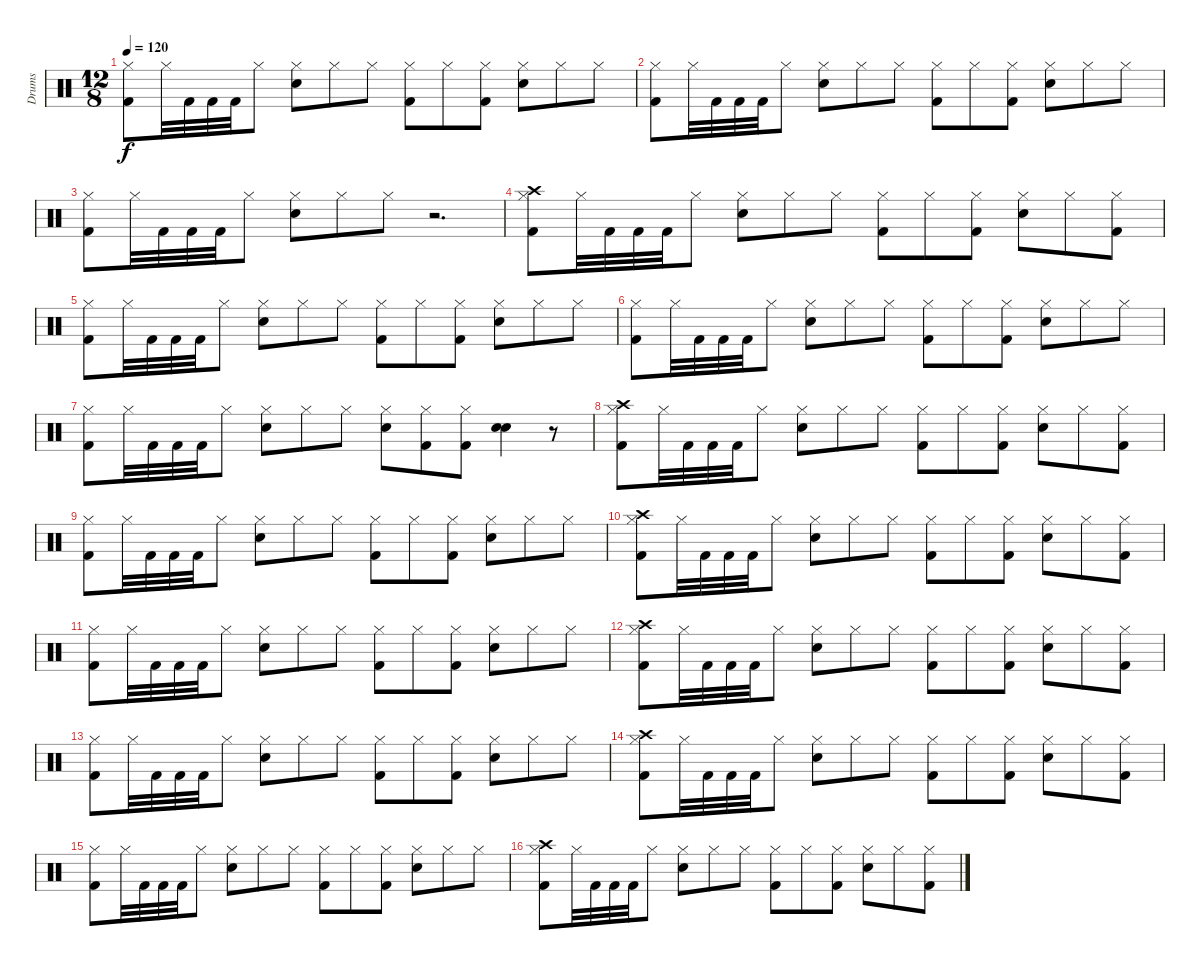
\track ("Drums" "Drums") {instrument percussion}
\staff {score}
\articulation defaults
\ts (12 8)
\tempo 120
\clef neutral
\ks c
("Hi-Hat (closed)" "Kick (hit) 2").8{dy f} "Hi-Hat (closed)".32 "Kick (hit) 2".32 "Kick (hit) 2".32 "Kick (hit) 2".32 "Hi-Hat (closed)".8 ("Hi-Hat (closed)" "Snare (hit) 2").8 "Hi-Hat (closed)".8 "Hi-Hat (closed)".8 ("Hi-Hat (closed)" "Kick (hit) 2").8 "Hi-Hat (closed)".8 ("Hi-Hat (closed)" "Kick (hit) 2").8 ("Hi-Hat (closed)" "Snare (hit) 2").8 "Hi-Hat (closed)".8 "Hi-Hat (closed)".8 |
("Hi-Hat (closed)" "Kick (hit) 2").8 "Hi-Hat (closed)".32 "Kick (hit) 2".32 "Kick (hit) 2".32 "Kick (hit) 2".32 "Hi-Hat (closed)".8 ("Hi-Hat (closed)" "Snare (hit) 2").8 "Hi-Hat (closed)".8 "Hi-Hat (closed)".8 ("Hi-Hat (closed)" "Kick (hit) 2").8 "Hi-Hat (closed)".8 ("Hi-Hat (closed)" "Kick (hit) 2").8 ("Hi-Hat (closed)" "Snare (hit) 2").8 "Hi-Hat (closed)".8 "Hi-Hat (closed)".8 |
("Hi-Hat (closed)" "Kick (hit) 2").8 "Hi-Hat (closed)".32 "Kick (hit) 2".32 "Kick (hit) 2".32 "Kick (hit) 2".32 "Hi-Hat (closed)".8 ("Hi-Hat (closed)" "Snare (hit) 2").8 "Hi-Hat (closed)".8 "Hi-Hat (closed)".8 r.2{d} |
("Crash high (hit)" "Hi-Hat (closed)" "Kick (hit) 2").8 "Hi-Hat (closed)".32 "Kick (hit) 2".32 "Kick (hit) 2".32 "Kick (hit) 2".32 "Hi-Hat (closed)".8 ("Hi-Hat (closed)" "Snare (hit) 2").8 "Hi-Hat (closed)".8 "Hi-Hat (closed)".8 ("Hi-Hat (closed)" "Kick (hit) 2").8 "Hi-Hat (closed)".8 ("Hi-Hat (closed)" "Kick (hit) 2").8 ("Hi-Hat (closed)" "Snare (hit) 2").8 "Hi-Hat (closed)".8 ("Hi-Hat (closed)" "Kick (hit) 2").8 |
("Hi-Hat (closed)" "Kick (hit) 2").8 "Hi-Hat (closed)".32 "Kick (hit) 2".32 "Kick (hit) 2".32 "Kick (hit) 2".32 "Hi-Hat (closed)".8 ("Hi-Hat (closed)" "Snare (hit) 2").8 "Hi-Hat (closed)".8 "Hi-Hat (closed)".8 ("Hi-Hat (closed)" "Kick (hit) 2").8 "Hi-Hat (closed)".8 ("Hi-Hat (closed)" "Kick (hit) 2").8 ("Hi-Hat (closed)" "Snare (hit) 2").8 "Hi-Hat (closed)".8 "Hi-Hat (closed)".8 |
("Hi-Hat (closed)" "Kick (hit) 2").8 "Hi-Hat (closed)".32 "Kick (hit) 2".32 "Kick (hit) 2".32 "Kick (hit) 2".32 "Hi-Hat (closed)".8 ("Hi-Hat (closed)" "Snare (hit) 2").8 "Hi-Hat (closed)".8 "Hi-Hat (closed)".8 ("Hi-Hat (closed)" "Kick (hit) 2").8 "Hi-Hat (closed)".8 ("Hi-Hat (closed)" "Kick (hit) 2").8 ("Hi-Hat (closed)" "Snare (hit) 2").8 "Hi-Hat (closed)".8 "Hi-Hat (closed)".8 |
("Hi-Hat (closed)" "Kick (hit) 2").8 "Hi-Hat (closed)".32 "Kick (hit) 2".32 "Kick (hit) 2".32 "Kick (hit) 2".32 "Hi-Hat (closed)".8 ("Hi-Hat (closed)" "Snare (hit) 2").8 "Hi-Hat (closed)".8 "Hi-Hat (closed)".8 ("Hi-Hat (closed)" "Snare (hit) 2").8 ("Hi-Hat (closed)" "Kick (hit) 2").8 ("Hi-Hat (closed)" "Kick (hit) 2").8 ("Snare (hit) 2" "Snare (hit) 2").4 r.8 |
("Crash high (hit)" "Hi-Hat (closed)" "Kick (hit) 2").8 "Hi-Hat (closed)".32 "Kick (hit) 2".32 "Kick (hit) 2".32 "Kick (hit) 2".32 "Hi-Hat (closed)".8 ("Hi-Hat (closed)" "Snare (hit) 2").8 "Hi-Hat (closed)".8 "Hi-Hat (closed)".8 ("Hi-Hat (closed)" "Kick (hit) 2").8 "Hi-Hat (closed)".8 ("Hi-Hat (closed)" "Kick (hit) 2").8 ("Hi-Hat (closed)" "Snare (hit) 2").8 "Hi-Hat (closed)".8 ("Hi-Hat (closed)" "Kick (hit) 2").8 |
("Hi-Hat (closed)" "Kick (hit) 2").8 "Hi-Hat (closed)".32 "Kick (hit) 2".32 "Kick (hit) 2".32 "Kick (hit) 2".32 "Hi-Hat (closed)".8 ("Hi-Hat (closed)" "Snare (hit) 2").8 "Hi-Hat (closed)".8 "Hi-Hat (closed)".8 ("Hi-Hat (closed)" "Kick (hit) 2").8 "Hi-Hat (closed)".8 ("Hi-Hat (closed)" "Kick (hit) 2").8 ("Hi-Hat (closed)" "Snare (hit) 2").8 "Hi-Hat (closed)".8 "Hi-Hat (closed)".8 |
("Crash high (hit)" "Hi-Hat (closed)" "Kick (hit) 2").8 "Hi-Hat (closed)".32 "Kick (hit) 2".32 "Kick (hit) 2".32 "Kick (hit) 2".32 "Hi-Hat (closed)".8 ("Hi-Hat (closed)" "Snare (hit) 2").8 "Hi-Hat (closed)".8 "Hi-Hat (closed)".8 ("Hi-Hat (closed)" "Kick (hit) 2").8 "Hi-Hat (closed)".8 ("Hi-Hat (closed)" "Kick (hit) 2").8 ("Hi-Hat (closed)" "Snare (hit) 2").8 "Hi-Hat (closed)".8 ("Hi-Hat (closed)" "Kick (hit) 2").8 |
("Hi-Hat (closed)" "Kick (hit) 2").8 "Hi-Hat (closed)".32 "Kick (hit) 2".32 "Kick (hit) 2".32 "Kick (hit) 2".32 "Hi-Hat (closed)".8 ("Hi-Hat (closed)" "Snare (hit) 2").8 "Hi-Hat (closed)".8 "Hi-Hat (closed)".8 ("Hi-Hat (closed)" "Kick (hit) 2").8 "Hi-Hat (closed)".8 ("Hi-Hat (closed)" "Kick (hit) 2").8 ("Hi-Hat (closed)" "Snare (hit) 2").8 "Hi-Hat (closed)".8 "Hi-Hat (closed)".8 |
("Crash high (hit)" "Hi-Hat (closed)" "Kick (hit) 2").8 "Hi-Hat (closed)".32 "Kick (hit) 2".32 "Kick (hit) 2".32 "Kick (hit) 2".32 "Hi-Hat (closed)".8 ("Hi-Hat (closed)" "Snare (hit) 2").8 "Hi-Hat (closed)".8 "Hi-Hat (closed)".8 ("Hi-Hat (closed)" "Kick (hit) 2").8 "Hi-Hat (closed)".8 ("Hi-Hat (closed)" "Kick (hit) 2").8 ("Hi-Hat (closed)" "Snare (hit) 2").8 "Hi-Hat (closed)".8 ("Hi-Hat (closed)" "Kick (hit) 2").8 |
("Hi-Hat (closed)" "Kick (hit) 2").8 "Hi-Hat (closed)".32 "Kick (hit) 2".32 "Kick (hit) 2".32 "Kick (hit) 2".32 "Hi-Hat (closed)".8 ("Hi-Hat (closed)" "Snare (hit) 2").8 "Hi-Hat (closed)".8 "Hi-Hat (closed)".8 ("Hi-Hat (closed)" "Kick (hit) 2").8 "Hi-Hat (closed)".8 ("Hi-Hat (closed)" "Kick (hit) 2").8 ("Hi-Hat (closed)" "Snare (hit) 2").8 "Hi-Hat (closed)".8 "Hi-Hat (closed)".8 |
("Crash high (hit)" "Hi-Hat (closed)" "Kick (hit) 2").8 "Hi-Hat (closed)".32 "Kick (hit) 2".32 "Kick (hit) 2".32 "Kick (hit) 2".32 "Hi-Hat (closed)".8 ("Hi-Hat (closed)" "Snare (hit) 2").8 "Hi-Hat (closed)".8 "Hi-Hat (closed)".8 ("Hi-Hat (closed)" "Kick (hit) 2").8 "Hi-Hat (closed)".8 ("Hi-Hat (closed)" "Kick (hit) 2").8 ("Hi-Hat (closed)" "Snare (hit) 2").8 "Hi-Hat (closed)".8 ("Hi-Hat (closed)" "Kick (hit) 2").8 |
("Hi-Hat (closed)" "Kick (hit) 2").8 "Hi-Hat (closed)".32 "Kick (hit) 2".32 "Kick (hit) 2".32 "Kick (hit) 2".32 "Hi-Hat (closed)".8 ("Hi-Hat (closed)" "Snare (hit) 2").8 "Hi-Hat (closed)".8 "Hi-Hat (closed)".8 ("Hi-Hat (closed)" "Kick (hit) 2").8 "Hi-Hat (closed)".8 ("Hi-Hat (closed)" "Kick (hit) 2").8 ("Hi-Hat (closed)" "Snare (hit) 2").8 "Hi-Hat (closed)".8 "Hi-Hat (closed)".8 |
("Crash high (hit)" "Hi-Hat (closed)" "Kick (hit) 2").8 "Hi-Hat (closed)".32 "Kick (hit) 2".32 "Kick (hit) 2".32 "Kick (hit) 2".32 "Hi-Hat (closed)".8 ("Hi-Hat (closed)" "Snare (hit) 2").8 "Hi-Hat (closed)".8 "Hi-Hat (closed)".8 ("Hi-Hat (closed)" "Kick (hit) 2").8 "Hi-Hat (closed)".8 ("Hi-Hat (closed)" "Kick (hit) 2").8 ("Hi-Hat (closed)" "Snare (hit) 2").8 "Hi-Hat (closed)".8 ("Hi-Hat (closed)" "Kick (hit) 2").8
